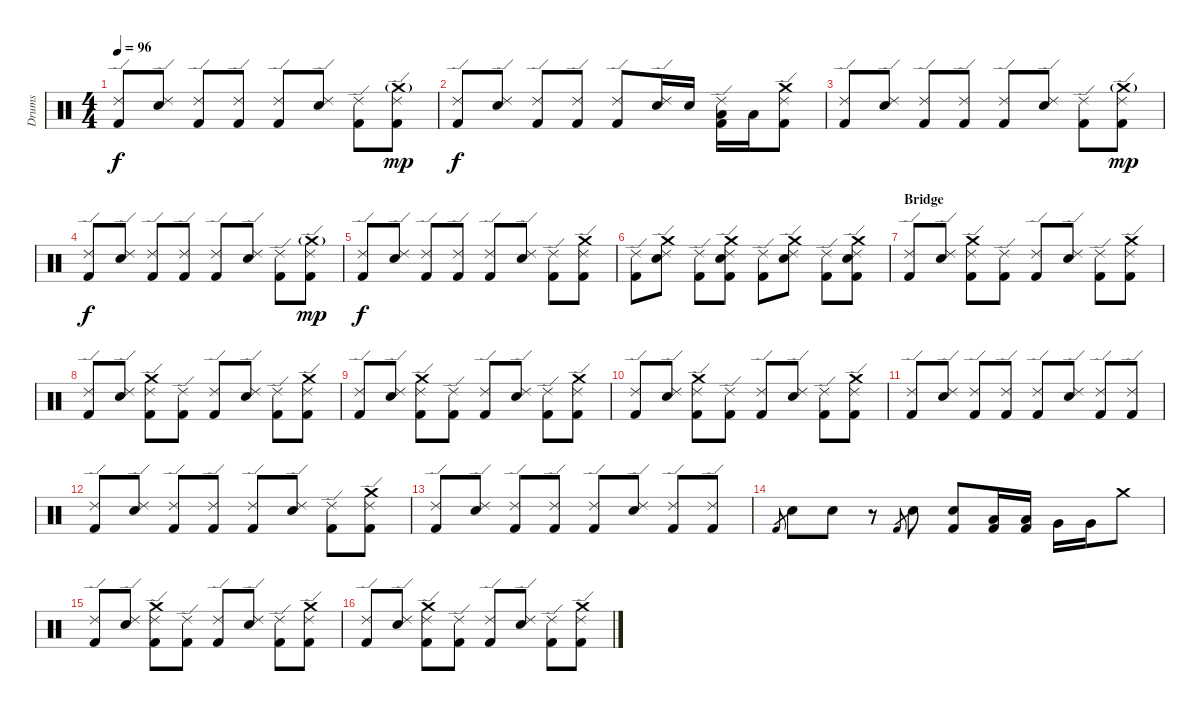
\track ("Drums" "Drums") {instrument percussion}
\staff {score}
\articulation defaults
\ts (4 4)
\tempo 96
\clef neutral
\ks c
("Ride (edge) 2" "Kick (hit) 2").8{dy f} ("Ride (edge) 2" "Snare (hit) 2").8 ("Ride (edge) 2" "Kick (hit) 2").8 ("Ride (edge) 2" "Kick (hit) 2").8 ("Ride (edge) 2" "Kick (hit) 2").8 ("Ride (edge) 2" "Snare (hit) 2").8 ("Ride (edge) 2" "Kick (hit) 2").8 ("Crash medium (hit)"{g} "Ride (edge) 2" "Kick (hit) 2").8{dy mp} |
("Ride (edge) 2" "Kick (hit) 2").8{dy f} ("Ride (edge) 2" "Snare (hit) 2").8 ("Ride (edge) 2" "Kick (hit) 2").8 ("Ride (edge) 2" "Kick (hit) 2").8 ("Ride (edge) 2" "Kick (hit) 2").8 ("Ride (edge) 2" "Snare (hit) 2").16 "Snare (hit) 2".16 ("Ride (edge) 2" "Low Tom (hit)" "Kick (hit) 2").16 "Low Tom (hit)".16 ("Crash medium (hit)" "Ride (edge) 2" "Kick (hit) 2").8 |
("Ride (edge) 2" "Kick (hit) 2").8 ("Ride (edge) 2" "Snare (hit) 2").8 ("Ride (edge) 2" "Kick (hit) 2").8 ("Ride (edge) 2" "Kick (hit) 2").8 ("Ride (edge) 2" "Kick (hit) 2").8 ("Ride (edge) 2" "Snare (hit) 2").8 ("Ride (edge) 2" "Kick (hit) 2").8 ("Crash medium (hit)"{g} "Ride (edge) 2" "Kick (hit) 2").8{dy mp} |
("Ride (edge) 2" "Kick (hit) 2").8{dy f} ("Ride (edge) 2" "Snare (hit) 2").8 ("Ride (edge) 2" "Kick (hit) 2").8 ("Ride (edge) 2" "Kick (hit) 2").8 ("Ride (edge) 2" "Kick (hit) 2").8 ("Ride (edge) 2" "Snare (hit) 2").8 ("Ride (edge) 2" "Kick (hit) 2").8 ("Crash medium (hit)"{g} "Ride (edge) 2" "Kick (hit) 2").8{dy mp} |
("Ride (edge) 2" "Kick (hit) 2").8{dy f} ("Ride (edge) 2" "Snare (hit) 2").8 ("Ride (edge) 2" "Kick (hit) 2").8 ("Ride (edge) 2" "Kick (hit) 2").8 ("Ride (edge) 2" "Kick (hit) 2").8 ("Ride (edge) 2" "Snare (hit) 2").8 ("Ride (edge) 2" "Kick (hit) 2").8 ("Crash medium (hit)" "Ride (edge) 2" "Kick (hit) 2").8 |
("Ride (edge) 2" "Kick (hit) 2").8 ("Crash medium (hit)" "Ride (edge) 2" "Snare (hit) 2").8 ("Ride (edge) 2" "Kick (hit) 2").8 ("Crash medium (hit)" "Ride (edge) 2" "Snare (hit) 2" "Kick (hit) 2").8 ("Ride (edge) 2" "Kick (hit) 2").8 ("Crash medium (hit)" "Ride (edge) 2" "Snare (hit) 2").8 ("Ride (edge) 2" "Kick (hit) 2").8 ("Crash medium (hit)" "Ride (edge) 2" "Snare (hit) 2" "Kick (hit) 2").8 |
\section ("" "Bridge")
("Ride (edge) 2" "Kick (hit) 2").8 ("Ride (edge) 2" "Snare (hit) 2").8 ("Crash medium (hit)" "Ride (edge) 2" "Kick (hit) 2").8 ("Ride (edge) 2" "Kick (hit) 2").8 ("Ride (edge) 2" "Kick (hit) 2").8 ("Ride (edge) 2" "Snare (hit) 2").8 ("Ride (edge) 2" "Kick (hit) 2").8 ("Crash medium (hit)" "Ride (edge) 2" "Kick (hit) 2").8 |
("Ride (edge) 2" "Kick (hit) 2").8 ("Ride (edge) 2" "Snare (hit) 2").8 ("Crash medium (hit)" "Ride (edge) 2" "Kick (hit) 2").8 ("Ride (edge) 2" "Kick (hit) 2").8 ("Ride (edge) 2" "Kick (hit) 2").8 ("Ride (edge) 2" "Snare (hit) 2").8 ("Ride (edge) 2" "Kick (hit) 2").8 ("Crash medium (hit)" "Ride (edge) 2" "Kick (hit) 2").8 |
("Ride (edge) 2" "Kick (hit) 2").8 ("Ride (edge) 2" "Snare (hit) 2").8 ("Crash medium (hit)" "Ride (edge) 2" "Kick (hit) 2").8 ("Ride (edge) 2" "Kick (hit) 2").8 ("Ride (edge) 2" "Kick (hit) 2").8 ("Ride (edge) 2" "Snare (hit) 2").8 ("Ride (edge) 2" "Kick (hit) 2").8 ("Crash medium (hit)" "Ride (edge) 2" "Kick (hit) 2").8 |
("Ride (edge) 2" "Kick (hit) 2").8 ("Ride (edge) 2" "Snare (hit) 2").8 ("Crash medium (hit)" "Ride (edge) 2" "Kick (hit) 2").8 ("Ride (edge) 2" "Kick (hit) 2").8 ("Ride (edge) 2" "Kick (hit) 2").8 ("Ride (edge) 2" "Snare (hit) 2").8 ("Ride (edge) 2" "Kick (hit) 2").8 ("Crash medium (hit)" "Ride (edge) 2" "Kick (hit) 2").8 |
("Ride (edge) 2" "Kick (hit) 2").8 ("Ride (edge) 2" "Snare (hit) 2").8 ("Ride (edge) 2" "Kick (hit) 2").8 ("Ride (edge) 2" "Kick (hit) 2").8 ("Ride (edge) 2" "Kick (hit) 2").8 ("Ride (edge) 2" "Snare (hit) 2").8 ("Ride (edge) 2" "Kick (hit) 2").8 ("Ride (edge) 2" "Kick (hit) 2").8 |
("Ride (edge) 2" "Kick (hit) 2").8 ("Ride (edge) 2" "Snare (hit) 2").8 ("Ride (edge) 2" "Kick (hit) 2").8 ("Ride (edge) 2" "Kick (hit) 2").8 ("Ride (edge) 2" "Kick (hit) 2").8 ("Ride (edge) 2" "Snare (hit) 2").8 ("Ride (edge) 2" "Kick (hit) 2").8 ("Crash medium (hit)" "Ride (edge) 2" "Kick (hit) 2").8 |
("Ride (edge) 2" "Kick (hit) 2").8 ("Ride (edge) 2" "Snare (hit) 2").8 ("Ride (edge) 2" "Kick (hit) 2").8 ("Ride (edge) 2" "Kick (hit) 2").8 ("Ride (edge) 2" "Kick (hit) 2").8 ("Ride (edge) 2" "Snare (hit) 2").8 ("Ride (edge) 2" "Kick (hit) 2").8 ("Ride (edge) 2" "Kick (hit) 2").8 |
"Kick (hit) 2".8{gr} "Snare (hit) 2".8 "Snare (hit) 2".8 r.8 "Kick (hit) 2".8{gr} "Snare (hit) 2".8 ("Snare (hit) 2" "Kick (hit) 2").8 ("Low Tom (hit)" "Kick (hit) 2").16 ("Low Tom (hit)" "Kick (hit) 2").16 "Very Low Tom (hit)".16 "Very Low Tom (hit)".16 "Crash medium (hit)".8 |
("Ride (edge) 2" "Kick (hit) 2").8 ("Ride (edge) 2" "Snare (hit) 2").8 ("Crash medium (hit)" "Ride (edge) 2" "Kick (hit) 2").8 ("Ride (edge) 2" "Kick (hit) 2").8 ("Ride (edge) 2" "Kick (hit) 2").8 ("Ride (edge) 2" "Snare (hit) 2").8 ("Ride (edge) 2" "Kick (hit) 2").8 ("Crash medium (hit)" "Ride (edge) 2" "Kick (hit) 2").8 |
("Ride (edge) 2" "Kick (hit) 2").8 ("Ride (edge) 2" "Snare (hit) 2").8 ("Crash medium (hit)" "Ride (edge) 2" "Kick (hit) 2").8 ("Ride (edge) 2" "Kick (hit) 2").8 ("Ride (edge) 2" "Kick (hit) 2").8 ("Ride (edge) 2" "Snare (hit) 2").8 ("Ride (edge) 2" "Kick (hit) 2").8 ("Crash medium (hit)" "Ride (edge) 2" "Kick (hit) 2").8
